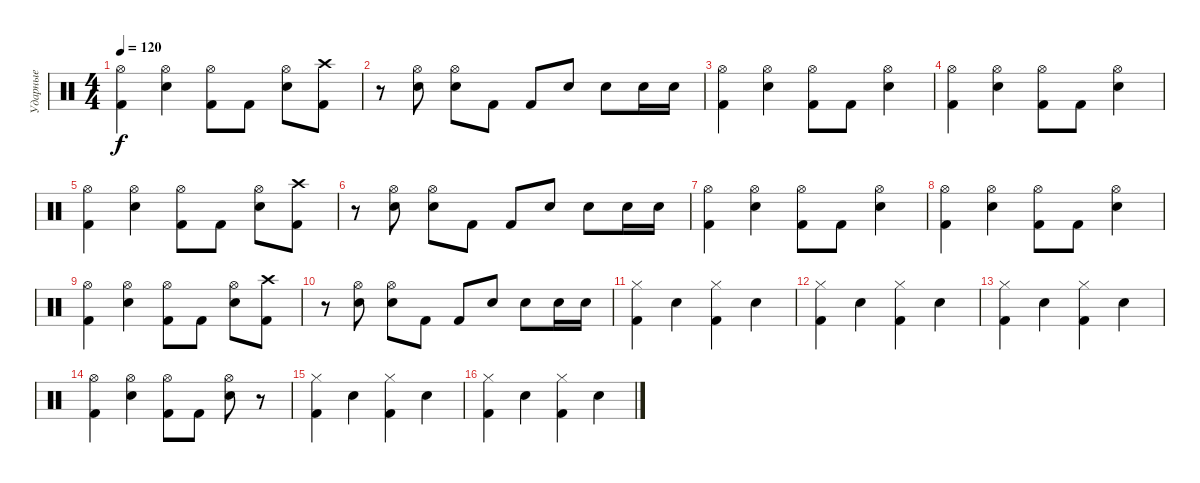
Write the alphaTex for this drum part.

\track ("Ударные" "Ударные") {instrument percussion}
\staff {score}
\articulation defaults
\ts (4 4)
\tempo 120
\clef neutral
\ks c
("Kick (hit) 2" "Hi-Hat (open)").4{dy f} ("Snare (hit) 2" "Hi-Hat (open)").4 ("Kick (hit) 2" "Hi-Hat (open)").8 "Kick (hit) 2".8 ("Snare (hit) 2" "Hi-Hat (open)").8 ("Kick (hit) 2" "Crash high (hit)").8 |
r.8 ("Snare (hit) 2" "Hi-Hat (open)").8 ("Snare (hit) 2" "Hi-Hat (open)").8 "Kick (hit) 2".8 "Kick (hit) 2".8 "Snare (hit) 2".8 "Snare (hit) 2".8 "Snare (hit) 2".16 "Snare (hit) 2".16 |
("Kick (hit) 2" "Hi-Hat (open)").4 ("Snare (hit) 2" "Hi-Hat (open)").4 ("Kick (hit) 2" "Hi-Hat (open)").8 "Kick (hit) 2".8 ("Snare (hit) 2" "Hi-Hat (open)").4 |
("Kick (hit) 2" "Hi-Hat (open)").4 ("Snare (hit) 2" "Hi-Hat (open)").4 ("Kick (hit) 2" "Hi-Hat (open)").8 "Kick (hit) 2".8 ("Snare (hit) 2" "Hi-Hat (open)").4 |
("Kick (hit) 2" "Hi-Hat (open)").4 ("Snare (hit) 2" "Hi-Hat (open)").4 ("Kick (hit) 2" "Hi-Hat (open)").8 "Kick (hit) 2".8 ("Snare (hit) 2" "Hi-Hat (open)").8 ("Kick (hit) 2" "Crash high (hit)").8 |
r.8 ("Snare (hit) 2" "Hi-Hat (open)").8 ("Snare (hit) 2" "Hi-Hat (open)").8 "Kick (hit) 2".8 "Kick (hit) 2".8 "Snare (hit) 2".8 "Snare (hit) 2".8 "Snare (hit) 2".16 "Snare (hit) 2".16 |
("Kick (hit) 2" "Hi-Hat (open)").4 ("Snare (hit) 2" "Hi-Hat (open)").4 ("Kick (hit) 2" "Hi-Hat (open)").8 "Kick (hit) 2".8 ("Snare (hit) 2" "Hi-Hat (open)").4 |
("Kick (hit) 2" "Hi-Hat (open)").4 ("Snare (hit) 2" "Hi-Hat (open)").4 ("Kick (hit) 2" "Hi-Hat (open)").8 "Kick (hit) 2".8 ("Snare (hit) 2" "Hi-Hat (open)").4 |
("Kick (hit) 2" "Hi-Hat (open)").4 ("Snare (hit) 2" "Hi-Hat (open)").4 ("Kick (hit) 2" "Hi-Hat (open)").8 "Kick (hit) 2".8 ("Snare (hit) 2" "Hi-Hat (open)").8 ("Kick (hit) 2" "Crash high (hit)").8 |
r.8 ("Snare (hit) 2" "Hi-Hat (open)").8 ("Snare (hit) 2" "Hi-Hat (open)").8 "Kick (hit) 2".8 "Kick (hit) 2".8 "Snare (hit) 2".8 "Snare (hit) 2".8 "Snare (hit) 2".16 "Snare (hit) 2".16 |
("Kick (hit) 2" "Hi-Hat (closed)").4 "Snare (hit) 2".4 ("Kick (hit) 2" "Hi-Hat (closed)").4 "Snare (hit) 2".4 |
("Kick (hit) 2" "Hi-Hat (closed)").4 "Snare (hit) 2".4 ("Kick (hit) 2" "Hi-Hat (closed)").4 "Snare (hit) 2".4 |
("Kick (hit) 2" "Hi-Hat (closed)").4 "Snare (hit) 2".4 ("Kick (hit) 2" "Hi-Hat (closed)").4 "Snare (hit) 2".4 |
("Kick (hit) 2" "Hi-Hat (open)").4 ("Snare (hit) 2" "Hi-Hat (open)").4 ("Kick (hit) 2" "Hi-Hat (open)").8 "Kick (hit) 2".8 ("Snare (hit) 2" "Hi-Hat (open)").8 r.8 |
("Kick (hit) 2" "Hi-Hat (closed)").4 "Snare (hit) 2".4 ("Kick (hit) 2" "Hi-Hat (closed)").4 "Snare (hit) 2".4 |
("Kick (hit) 2" "Hi-Hat (closed)").4 "Snare (hit) 2".4 ("Kick (hit) 2" "Hi-Hat (closed)").4 "Snare (hit) 2".4
